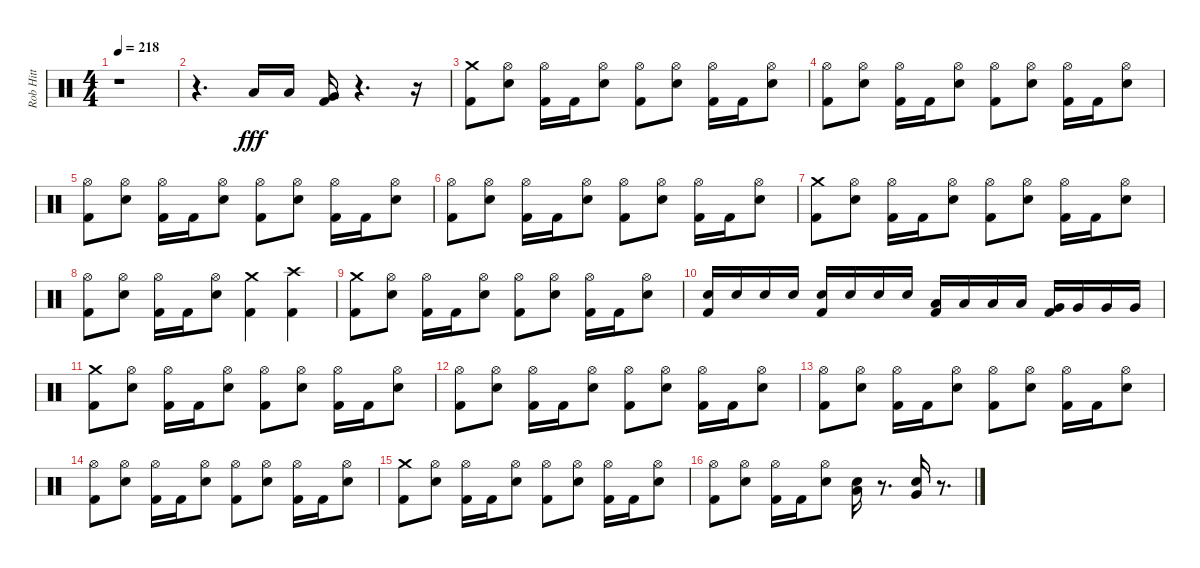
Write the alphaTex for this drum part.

\track ("Rob Hitt" "Rob Hitt") {instrument percussion}
\staff {score}
\articulation defaults
\ts (4 4)
\tempo 218
\clef neutral
\ks c
r.1{dy fff} |
r.4{d} "Low Tom (hit)".16 "Low Tom (hit)".16 ("Very Low Tom (hit)" "Kick (hit) 2").16 r.4{d} r.16 |
("Kick (hit) 2" "Crash medium (hit)").8 ("Hi-Hat (open)" "Electric Snare (hit)").8 ("Kick (hit) 2" "Hi-Hat (open)").16 "Kick (hit) 2".16 ("Electric Snare (hit)" "Hi-Hat (open)").8 ("Kick (hit) 2" "Hi-Hat (open)").8 ("Electric Snare (hit)" "Hi-Hat (open)").8 ("Kick (hit) 2" "Hi-Hat (open)").16 "Kick (hit) 2".16 ("Electric Snare (hit)" "Hi-Hat (open)").8 |
("Kick (hit) 2" "Hi-Hat (open)").8 ("Electric Snare (hit)" "Hi-Hat (open)").8 ("Kick (hit) 2" "Hi-Hat (open)").16 "Kick (hit) 2".16 ("Electric Snare (hit)" "Hi-Hat (open)").8 ("Kick (hit) 2" "Hi-Hat (open)").8 ("Electric Snare (hit)" "Hi-Hat (open)").8 ("Kick (hit) 2" "Hi-Hat (open)").16 "Kick (hit) 2".16 ("Electric Snare (hit)" "Hi-Hat (open)").8 |
("Kick (hit) 2" "Hi-Hat (open)").8 ("Electric Snare (hit)" "Hi-Hat (open)").8 ("Kick (hit) 2" "Hi-Hat (open)").16 "Kick (hit) 2".16 ("Electric Snare (hit)" "Hi-Hat (open)").8 ("Kick (hit) 2" "Hi-Hat (open)").8 ("Electric Snare (hit)" "Hi-Hat (open)").8 ("Kick (hit) 2" "Hi-Hat (open)").16 "Kick (hit) 2".16 ("Electric Snare (hit)" "Hi-Hat (open)").8 |
("Kick (hit) 2" "Hi-Hat (open)").8 ("Electric Snare (hit)" "Hi-Hat (open)").8 ("Kick (hit) 2" "Hi-Hat (open)").16 "Kick (hit) 2".16 ("Electric Snare (hit)" "Hi-Hat (open)").8 ("Kick (hit) 2" "Hi-Hat (open)").8 ("Electric Snare (hit)" "Hi-Hat (open)").8 ("Kick (hit) 2" "Hi-Hat (open)").16 "Kick (hit) 2".16 ("Electric Snare (hit)" "Hi-Hat (open)").8 |
("Kick (hit) 2" "Crash medium (hit)").8 ("Electric Snare (hit)" "Hi-Hat (open)").8 ("Kick (hit) 2" "Hi-Hat (open)").16 "Kick (hit) 2".16 ("Electric Snare (hit)" "Hi-Hat (open)").8 ("Kick (hit) 2" "Hi-Hat (open)").8 ("Electric Snare (hit)" "Hi-Hat (open)").8 ("Kick (hit) 2" "Hi-Hat (open)").16 "Kick (hit) 2".16 ("Electric Snare (hit)" "Hi-Hat (open)").8 |
("Kick (hit) 2" "Hi-Hat (open)").8 ("Electric Snare (hit)" "Hi-Hat (open)").8 ("Kick (hit) 2" "Hi-Hat (open)").16 "Kick (hit) 2".16 ("Electric Snare (hit)" "Hi-Hat (open)").8 ("Crash medium (hit)" "Kick (hit) 2").4 ("Kick (hit) 2" "Crash high (hit)").4 |
("Crash medium (hit)" "Kick (hit) 2").8 ("Electric Snare (hit)" "Hi-Hat (open)").8 ("Kick (hit) 2" "Hi-Hat (open)").16 "Kick (hit) 2".16 ("Electric Snare (hit)" "Hi-Hat (open)").8 ("Kick (hit) 2" "Hi-Hat (open)").8 ("Electric Snare (hit)" "Hi-Hat (open)").8 ("Kick (hit) 2" "Hi-Hat (open)").16 "Kick (hit) 2".16 ("Electric Snare (hit)" "Hi-Hat (open)").8 |
("Kick (hit) 2" "Electric Snare (hit)").16 "Electric Snare (hit)".16 "Electric Snare (hit)".16 "Electric Snare (hit)".16 ("Kick (hit) 2" "Electric Snare (hit)").16 "Electric Snare (hit)".16 "Electric Snare (hit)".16 "Electric Snare (hit)".16 ("Kick (hit) 2" "Low Tom (hit)").16 "Low Tom (hit)".16 "Low Tom (hit)".16 "Low Tom (hit)".16 ("Kick (hit) 2" "Very Low Tom (hit)").16 "Very Low Tom (hit)".16 "Very Low Tom (hit)".16 "Very Low Tom (hit)".16 |
("Kick (hit) 2" "Crash medium (hit)").8 ("Hi-Hat (open)" "Electric Snare (hit)").8 ("Kick (hit) 2" "Hi-Hat (open)").16 "Kick (hit) 2".16 ("Electric Snare (hit)" "Hi-Hat (open)").8 ("Kick (hit) 2" "Hi-Hat (open)").8 ("Electric Snare (hit)" "Hi-Hat (open)").8 ("Kick (hit) 2" "Hi-Hat (open)").16 "Kick (hit) 2".16 ("Electric Snare (hit)" "Hi-Hat (open)").8 |
("Kick (hit) 2" "Hi-Hat (open)").8 ("Electric Snare (hit)" "Hi-Hat (open)").8 ("Kick (hit) 2" "Hi-Hat (open)").16 "Kick (hit) 2".16 ("Electric Snare (hit)" "Hi-Hat (open)").8 ("Kick (hit) 2" "Hi-Hat (open)").8 ("Electric Snare (hit)" "Hi-Hat (open)").8 ("Kick (hit) 2" "Hi-Hat (open)").16 "Kick (hit) 2".16 ("Electric Snare (hit)" "Hi-Hat (open)").8 |
("Kick (hit) 2" "Hi-Hat (open)").8 ("Electric Snare (hit)" "Hi-Hat (open)").8 ("Kick (hit) 2" "Hi-Hat (open)").16 "Kick (hit) 2".16 ("Electric Snare (hit)" "Hi-Hat (open)").8 ("Kick (hit) 2" "Hi-Hat (open)").8 ("Electric Snare (hit)" "Hi-Hat (open)").8 ("Kick (hit) 2" "Hi-Hat (open)").16 "Kick (hit) 2".16 ("Electric Snare (hit)" "Hi-Hat (open)").8 |
("Kick (hit) 2" "Hi-Hat (open)").8 ("Electric Snare (hit)" "Hi-Hat (open)").8 ("Kick (hit) 2" "Hi-Hat (open)").16 "Kick (hit) 2".16 ("Electric Snare (hit)" "Hi-Hat (open)").8 ("Kick (hit) 2" "Hi-Hat (open)").8 ("Electric Snare (hit)" "Hi-Hat (open)").8 ("Kick (hit) 2" "Hi-Hat (open)").16 "Kick (hit) 2".16 ("Electric Snare (hit)" "Hi-Hat (open)").8 |
("Kick (hit) 2" "Crash medium (hit)").8 ("Hi-Hat (open)" "Electric Snare (hit)").8 ("Kick (hit) 2" "Hi-Hat (open)").16 "Kick (hit) 2".16 ("Electric Snare (hit)" "Hi-Hat (open)").8 ("Kick (hit) 2" "Hi-Hat (open)").8 ("Electric Snare (hit)" "Hi-Hat (open)").8 ("Kick (hit) 2" "Hi-Hat (open)").16 "Kick (hit) 2".16 ("Electric Snare (hit)" "Hi-Hat (open)").8 |
("Kick (hit) 2" "Hi-Hat (open)").8 ("Electric Snare (hit)" "Hi-Hat (open)").8 ("Kick (hit) 2" "Hi-Hat (open)").16 "Kick (hit) 2".16 ("Electric Snare (hit)" "Hi-Hat (open)").8 ("Electric Snare (hit)" "Low Tom (hit)").16 r.8{d} ("Electric Snare (hit)" "Very Low Tom (hit)").16 r.8{d}
